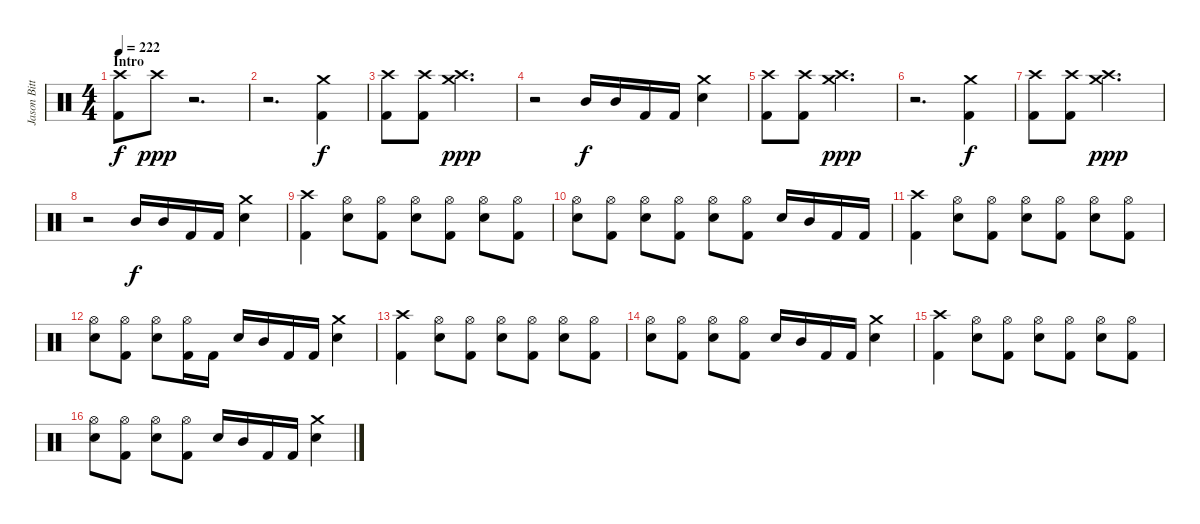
\track ("Jason Bittner" "Jason Bitt") {instrument percussion}
\staff {score}
\articulation defaults
\ts (4 4)
\section ("" "Intro")
\tempo 222
\clef neutral
\ks c
("Crash high (hit)" "Kick (hit) 2").8{dy f} "Crash high (hit)".8{dy ppp} r.2{d} |
r.2{d} ("Crash medium (hit)" "Kick (hit) 2").4{dy f} |
("Crash high (hit)" "Kick (hit) 2").8 ("Crash high (hit)" "Kick (hit) 2").8 ("Crash medium (hit)" "Crash high (hit)").2{d dy ppp} |
r.2 "Mid Tom (hit)".16{dy f} "Mid Tom (hit)".16 "Kick (hit) 2".16 "Kick (hit) 2".16 ("Crash medium (hit)" "Electric Snare (hit)").4 |
("Crash high (hit)" "Kick (hit) 2").8 ("Crash high (hit)" "Kick (hit) 2").8 ("Crash medium (hit)" "Crash high (hit)").2{d dy ppp} |
r.2{d} ("Crash medium (hit)" "Kick (hit) 2").4{dy f} |
("Crash high (hit)" "Kick (hit) 2").8 ("Crash high (hit)" "Kick (hit) 2").8 ("Crash medium (hit)" "Crash high (hit)").2{d dy ppp} |
r.2 "Mid Tom (hit)".16{dy f} "Mid Tom (hit)".16 "Kick (hit) 2".16 "Kick (hit) 2".16 ("Crash medium (hit)" "Electric Snare (hit)").4 |
("Crash high (hit)" "Kick (hit) 2").4 ("Hi-Hat (open)" "Electric Snare (hit)").8 ("Hi-Hat (open)" "Kick (hit) 2").8 ("Hi-Hat (open)" "Electric Snare (hit)").8 ("Hi-Hat (open)" "Kick (hit) 2").8 ("Hi-Hat (open)" "Electric Snare (hit)").8 ("Hi-Hat (open)" "Kick (hit) 2").8 |
("Hi-Hat (open)" "Electric Snare (hit)").8 ("Hi-Hat (open)" "Kick (hit) 2").8 ("Hi-Hat (open)" "Electric Snare (hit)").8 ("Hi-Hat (open)" "Kick (hit) 2").8 ("Hi-Hat (open)" "Electric Snare (hit)").8 ("Hi-Hat (open)" "Kick (hit) 2").8 "Electric Snare (hit)".16 "Mid Tom (hit)".16 "Kick (hit) 2".16 "Kick (hit) 2".16 |
("Crash high (hit)" "Kick (hit) 2").4 ("Hi-Hat (open)" "Electric Snare (hit)").8 ("Hi-Hat (open)" "Kick (hit) 2").8 ("Hi-Hat (open)" "Electric Snare (hit)").8 ("Hi-Hat (open)" "Kick (hit) 2").8 ("Hi-Hat (open)" "Electric Snare (hit)").8 ("Hi-Hat (open)" "Kick (hit) 2").8 |
("Hi-Hat (open)" "Electric Snare (hit)").8 ("Hi-Hat (open)" "Kick (hit) 2").8 ("Hi-Hat (open)" "Electric Snare (hit)").8 ("Hi-Hat (open)" "Kick (hit) 2").16 "Kick (hit) 2".16 "Electric Snare (hit)".16 "Mid Tom (hit)".16 "Kick (hit) 2".16 "Kick (hit) 2".16 ("Crash medium (hit)" "Electric Snare (hit)").4 |
("Crash high (hit)" "Kick (hit) 2").4 ("Hi-Hat (open)" "Electric Snare (hit)").8 ("Hi-Hat (open)" "Kick (hit) 2").8 ("Hi-Hat (open)" "Electric Snare (hit)").8 ("Hi-Hat (open)" "Kick (hit) 2").8 ("Hi-Hat (open)" "Electric Snare (hit)").8 ("Hi-Hat (open)" "Kick (hit) 2").8 |
("Hi-Hat (open)" "Electric Snare (hit)").8 ("Hi-Hat (open)" "Kick (hit) 2").8 ("Hi-Hat (open)" "Electric Snare (hit)").8 ("Hi-Hat (open)" "Kick (hit) 2").8 "Electric Snare (hit)".16 "Mid Tom (hit)".16 "Kick (hit) 2".16 "Kick (hit) 2".16 ("Crash medium (hit)" "Electric Snare (hit)").4 |
("Crash high (hit)" "Kick (hit) 2").4 ("Hi-Hat (open)" "Electric Snare (hit)").8 ("Hi-Hat (open)" "Kick (hit) 2").8 ("Hi-Hat (open)" "Electric Snare (hit)").8 ("Hi-Hat (open)" "Kick (hit) 2").8 ("Hi-Hat (open)" "Electric Snare (hit)").8 ("Hi-Hat (open)" "Kick (hit) 2").8 |
("Hi-Hat (open)" "Electric Snare (hit)").8 ("Hi-Hat (open)" "Kick (hit) 2").8 ("Hi-Hat (open)" "Electric Snare (hit)").8 ("Hi-Hat (open)" "Kick (hit) 2").8 "Electric Snare (hit)".16 "Mid Tom (hit)".16 "Kick (hit) 2".16 "Kick (hit) 2".16 ("Crash medium (hit)" "Electric Snare (hit)").4
